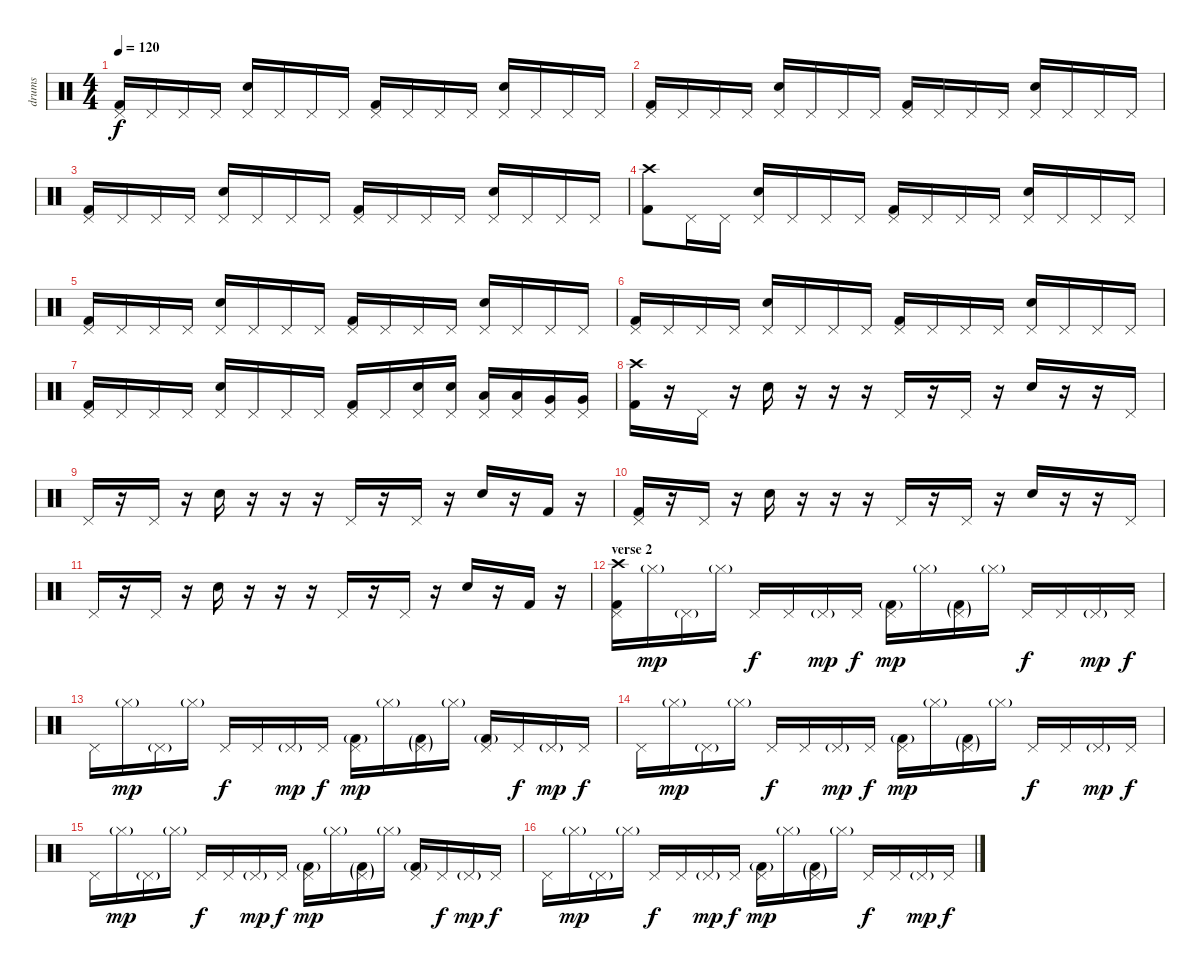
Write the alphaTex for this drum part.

\track ("drums" "drums") {instrument percussion}
\staff {score}
\articulation defaults
\ts (4 4)
\tempo 120
\clef neutral
\ks c
("Kick (hit) 2" "Pedal Hi-Hat (hit)").16{dy f} "Pedal Hi-Hat (hit)".16 "Pedal Hi-Hat (hit)".16 "Pedal Hi-Hat (hit)".16 ("Electric Snare (hit)" "Pedal Hi-Hat (hit)").16 "Pedal Hi-Hat (hit)".16 "Pedal Hi-Hat (hit)".16 "Pedal Hi-Hat (hit)".16 ("Kick (hit) 2" "Pedal Hi-Hat (hit)").16 "Pedal Hi-Hat (hit)".16 "Pedal Hi-Hat (hit)".16 "Pedal Hi-Hat (hit)".16 ("Electric Snare (hit)" "Pedal Hi-Hat (hit)").16 "Pedal Hi-Hat (hit)".16 "Pedal Hi-Hat (hit)".16 "Pedal Hi-Hat (hit)".16 |
("Kick (hit) 2" "Pedal Hi-Hat (hit)").16 "Pedal Hi-Hat (hit)".16 "Pedal Hi-Hat (hit)".16 "Pedal Hi-Hat (hit)".16 ("Electric Snare (hit)" "Pedal Hi-Hat (hit)").16 "Pedal Hi-Hat (hit)".16 "Pedal Hi-Hat (hit)".16 "Pedal Hi-Hat (hit)".16 ("Kick (hit) 2" "Pedal Hi-Hat (hit)").16 "Pedal Hi-Hat (hit)".16 "Pedal Hi-Hat (hit)".16 "Pedal Hi-Hat (hit)".16 ("Electric Snare (hit)" "Pedal Hi-Hat (hit)").16 "Pedal Hi-Hat (hit)".16 "Pedal Hi-Hat (hit)".16 "Pedal Hi-Hat (hit)".16 |
("Kick (hit) 2" "Pedal Hi-Hat (hit)").16 "Pedal Hi-Hat (hit)".16 "Pedal Hi-Hat (hit)".16 "Pedal Hi-Hat (hit)".16 ("Electric Snare (hit)" "Pedal Hi-Hat (hit)").16 "Pedal Hi-Hat (hit)".16 "Pedal Hi-Hat (hit)".16 "Pedal Hi-Hat (hit)".16 ("Kick (hit) 2" "Pedal Hi-Hat (hit)").16 "Pedal Hi-Hat (hit)".16 "Pedal Hi-Hat (hit)".16 "Pedal Hi-Hat (hit)".16 ("Electric Snare (hit)" "Pedal Hi-Hat (hit)").16 "Pedal Hi-Hat (hit)".16 "Pedal Hi-Hat (hit)".16 "Pedal Hi-Hat (hit)".16 |
("Kick (hit) 2" "Crash high (hit)").8 "Pedal Hi-Hat (hit)".16 "Pedal Hi-Hat (hit)".16 ("Electric Snare (hit)" "Pedal Hi-Hat (hit)").16 "Pedal Hi-Hat (hit)".16 "Pedal Hi-Hat (hit)".16 "Pedal Hi-Hat (hit)".16 ("Kick (hit) 2" "Pedal Hi-Hat (hit)").16 "Pedal Hi-Hat (hit)".16 "Pedal Hi-Hat (hit)".16 "Pedal Hi-Hat (hit)".16 ("Electric Snare (hit)" "Pedal Hi-Hat (hit)").16 "Pedal Hi-Hat (hit)".16 "Pedal Hi-Hat (hit)".16 "Pedal Hi-Hat (hit)".16 |
("Kick (hit) 2" "Pedal Hi-Hat (hit)").16 "Pedal Hi-Hat (hit)".16 "Pedal Hi-Hat (hit)".16 "Pedal Hi-Hat (hit)".16 ("Electric Snare (hit)" "Pedal Hi-Hat (hit)").16 "Pedal Hi-Hat (hit)".16 "Pedal Hi-Hat (hit)".16 "Pedal Hi-Hat (hit)".16 ("Kick (hit) 2" "Pedal Hi-Hat (hit)").16 "Pedal Hi-Hat (hit)".16 "Pedal Hi-Hat (hit)".16 "Pedal Hi-Hat (hit)".16 ("Electric Snare (hit)" "Pedal Hi-Hat (hit)").16 "Pedal Hi-Hat (hit)".16 "Pedal Hi-Hat (hit)".16 "Pedal Hi-Hat (hit)".16 |
("Kick (hit) 2" "Pedal Hi-Hat (hit)").16 "Pedal Hi-Hat (hit)".16 "Pedal Hi-Hat (hit)".16 "Pedal Hi-Hat (hit)".16 ("Electric Snare (hit)" "Pedal Hi-Hat (hit)").16 "Pedal Hi-Hat (hit)".16 "Pedal Hi-Hat (hit)".16 "Pedal Hi-Hat (hit)".16 ("Kick (hit) 2" "Pedal Hi-Hat (hit)").16 "Pedal Hi-Hat (hit)".16 "Pedal Hi-Hat (hit)".16 "Pedal Hi-Hat (hit)".16 ("Electric Snare (hit)" "Pedal Hi-Hat (hit)").16 "Pedal Hi-Hat (hit)".16 "Pedal Hi-Hat (hit)".16 "Pedal Hi-Hat (hit)".16 |
("Kick (hit) 2" "Pedal Hi-Hat (hit)").16 "Pedal Hi-Hat (hit)".16 "Pedal Hi-Hat (hit)".16 "Pedal Hi-Hat (hit)".16 ("Electric Snare (hit)" "Pedal Hi-Hat (hit)").16 "Pedal Hi-Hat (hit)".16 "Pedal Hi-Hat (hit)".16 "Pedal Hi-Hat (hit)".16 ("Kick (hit) 2" "Pedal Hi-Hat (hit)").16 "Pedal Hi-Hat (hit)".16 ("Electric Snare (hit)" "Pedal Hi-Hat (hit)").16 ("Electric Snare (hit)" "Pedal Hi-Hat (hit)").16 ("Low Tom (hit)" "Pedal Hi-Hat (hit)").16 ("Low Tom (hit)" "Pedal Hi-Hat (hit)").16 ("Very Low Tom (hit)" "Pedal Hi-Hat (hit)").16 ("Very Low Tom (hit)" "Pedal Hi-Hat (hit)").16 |
("Kick (hit) 2" "Crash high (hit)").16 r.16 "Pedal Hi-Hat (hit)".16 r.16 "Electric Snare (hit)".16 r.16 r.16 r.16 "Pedal Hi-Hat (hit)".16 r.16 "Pedal Hi-Hat (hit)".16 r.16 "Electric Snare (hit)".16 r.16 r.16 "Pedal Hi-Hat (hit)".16 |
"Pedal Hi-Hat (hit)".16 r.16 "Pedal Hi-Hat (hit)".16 r.16 "Electric Snare (hit)".16 r.16 r.16 r.16 "Pedal Hi-Hat (hit)".16 r.16 "Pedal Hi-Hat (hit)".16 r.16 "Electric Snare (hit)".16 r.16 "Kick (hit) 2".16 r.16 |
("Kick (hit) 2" "Pedal Hi-Hat (hit)").16 r.16 "Pedal Hi-Hat (hit)".16 r.16 "Electric Snare (hit)".16 r.16 r.16 r.16 "Pedal Hi-Hat (hit)".16 r.16 "Pedal Hi-Hat (hit)".16 r.16 "Electric Snare (hit)".16 r.16 r.16 "Pedal Hi-Hat (hit)".16 |
"Pedal Hi-Hat (hit)".16 r.16 "Pedal Hi-Hat (hit)".16 r.16 "Electric Snare (hit)".16 r.16 r.16 r.16 "Pedal Hi-Hat (hit)".16 r.16 "Pedal Hi-Hat (hit)".16 r.16 "Electric Snare (hit)".16 r.16 "Kick (hit) 2".16 r.16 |
\section ("" "verse 2")
("Kick (hit) 2" "Pedal Hi-Hat (hit)" "Crash high (hit)").16 "Hi-Hat (closed)"{g}.16{dy mp} "Pedal Hi-Hat (hit)"{g}.16 "Hi-Hat (closed)"{g}.16 "Pedal Hi-Hat (hit)".16{dy f volume 10} "Pedal Hi-Hat (hit)".16 "Pedal Hi-Hat (hit)"{g}.16{dy mp} "Pedal Hi-Hat (hit)".16{dy f} ("Kick (hit) 2"{g} "Pedal Hi-Hat (hit)").16{dy mp} "Hi-Hat (closed)"{g}.16 ("Kick (hit) 2"{g} "Pedal Hi-Hat (hit)"{g}).16 "Hi-Hat (closed)"{g}.16 "Pedal Hi-Hat (hit)".16{dy f} "Pedal Hi-Hat (hit)".16 "Pedal Hi-Hat (hit)"{g}.16{dy mp} "Pedal Hi-Hat (hit)".16{dy f} |
"Pedal Hi-Hat (hit)".16 "Hi-Hat (closed)"{g}.16{dy mp} "Pedal Hi-Hat (hit)"{g}.16 "Hi-Hat (closed)"{g}.16 "Pedal Hi-Hat (hit)".16{dy f} "Pedal Hi-Hat (hit)".16 "Pedal Hi-Hat (hit)"{g}.16{dy mp} "Pedal Hi-Hat (hit)".16{dy f} ("Kick (hit) 2"{g} "Pedal Hi-Hat (hit)").16{dy mp} "Hi-Hat (closed)"{g}.16 ("Kick (hit) 2"{g} "Pedal Hi-Hat (hit)"{g}).16 "Hi-Hat (closed)"{g}.16 ("Kick (hit) 2"{g} "Pedal Hi-Hat (hit)").16 "Pedal Hi-Hat (hit)".16{dy f} "Pedal Hi-Hat (hit)"{g}.16{dy mp} "Pedal Hi-Hat (hit)".16{dy f} |
"Pedal Hi-Hat (hit)".16 "Hi-Hat (closed)"{g}.16{dy mp} "Pedal Hi-Hat (hit)"{g}.16 "Hi-Hat (closed)"{g}.16 "Pedal Hi-Hat (hit)".16{dy f} "Pedal Hi-Hat (hit)".16 "Pedal Hi-Hat (hit)"{g}.16{dy mp} "Pedal Hi-Hat (hit)".16{dy f} ("Kick (hit) 2"{g} "Pedal Hi-Hat (hit)").16{dy mp} "Hi-Hat (closed)"{g}.16 ("Kick (hit) 2"{g} "Pedal Hi-Hat (hit)"{g}).16 "Hi-Hat (closed)"{g}.16 "Pedal Hi-Hat (hit)".16{dy f} "Pedal Hi-Hat (hit)".16 "Pedal Hi-Hat (hit)"{g}.16{dy mp} "Pedal Hi-Hat (hit)".16{dy f} |
"Pedal Hi-Hat (hit)".16 "Hi-Hat (closed)"{g}.16{dy mp} "Pedal Hi-Hat (hit)"{g}.16 "Hi-Hat (closed)"{g}.16 "Pedal Hi-Hat (hit)".16{dy f} "Pedal Hi-Hat (hit)".16 "Pedal Hi-Hat (hit)"{g}.16{dy mp} "Pedal Hi-Hat (hit)".16{dy f} ("Kick (hit) 2"{g} "Pedal Hi-Hat (hit)").16{dy mp} "Hi-Hat (closed)"{g}.16 ("Kick (hit) 2"{g} "Pedal Hi-Hat (hit)"{g}).16 "Hi-Hat (closed)"{g}.16 ("Kick (hit) 2"{g} "Pedal Hi-Hat (hit)").16 "Pedal Hi-Hat (hit)".16{dy f} "Pedal Hi-Hat (hit)"{g}.16{dy mp} "Pedal Hi-Hat (hit)".16{dy f} |
"Pedal Hi-Hat (hit)".16 "Hi-Hat (closed)"{g}.16{dy mp} "Pedal Hi-Hat (hit)"{g}.16 "Hi-Hat (closed)"{g}.16 "Pedal Hi-Hat (hit)".16{dy f} "Pedal Hi-Hat (hit)".16 "Pedal Hi-Hat (hit)"{g}.16{dy mp} "Pedal Hi-Hat (hit)".16{dy f} ("Kick (hit) 2"{g} "Pedal Hi-Hat (hit)").16{dy mp} "Hi-Hat (closed)"{g}.16 ("Kick (hit) 2"{g} "Pedal Hi-Hat (hit)"{g}).16 "Hi-Hat (closed)"{g}.16 "Pedal Hi-Hat (hit)".16{dy f} "Pedal Hi-Hat (hit)".16 "Pedal Hi-Hat (hit)"{g}.16{dy mp} "Pedal Hi-Hat (hit)".16{dy f}
